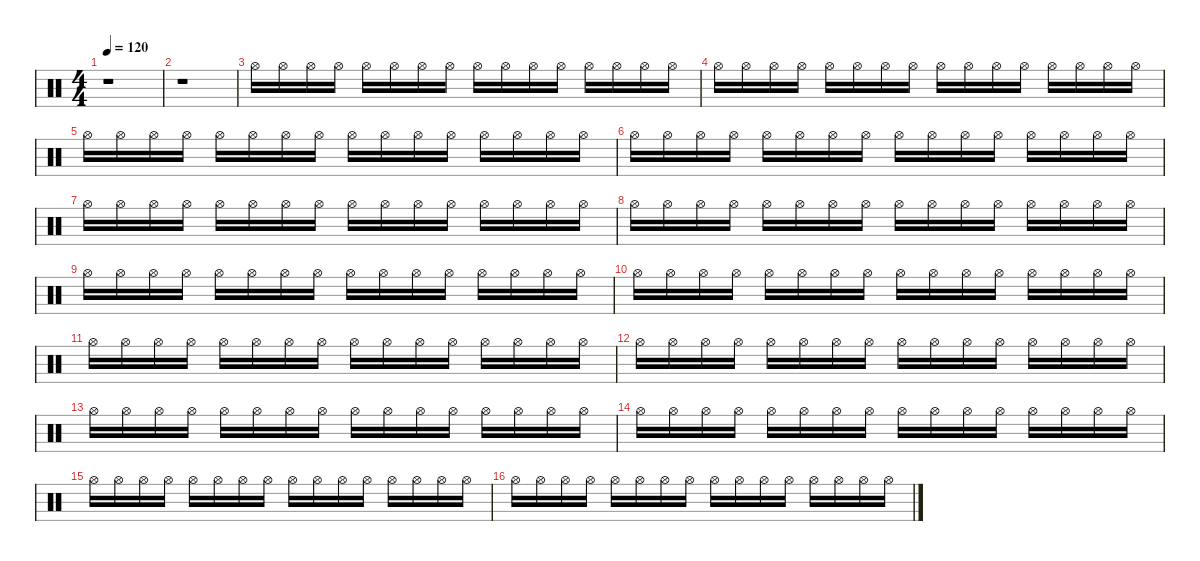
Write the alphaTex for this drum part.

\defaultSystemsLayout 4
\hideDynamics
\bracketExtendMode nobrackets
\singleTrackTrackNamePolicy hidden
\multiTrackTrackNamePolicy hidden
\firstSystemTrackNameMode fullname
\firstSystemTrackNameOrientation horizontal
\otherSystemsTrackNameOrientation horizontal
\track ("Percussion" "drm.") {instrument percussion}
\staff {score}
\articulation defaults
\ts (4 4)
\tempo 120
\clef neutral
\ks c
r.1{dy f beam Down} |
r.1{beam Down} |
"Hi-Hat (open)".16{beam Down} "Hi-Hat (open)".16{beam Down} "Hi-Hat (open)".16{beam Down} "Hi-Hat (open)".16{beam Down} "Hi-Hat (open)".16{beam Down} "Hi-Hat (open)".16{beam Down} "Hi-Hat (open)".16{beam Down} "Hi-Hat (open)".16{beam Down} "Hi-Hat (open)".16{beam Down} "Hi-Hat (open)".16{beam Down} "Hi-Hat (open)".16{beam Down} "Hi-Hat (open)".16{beam Down} "Hi-Hat (open)".16{beam Down} "Hi-Hat (open)".16{beam Down} "Hi-Hat (open)".16{beam Down} "Hi-Hat (open)".16{beam Down} |
"Hi-Hat (open)".16{beam Down} "Hi-Hat (open)".16{beam Down} "Hi-Hat (open)".16{beam Down} "Hi-Hat (open)".16{beam Down} "Hi-Hat (open)".16{beam Down} "Hi-Hat (open)".16{beam Down} "Hi-Hat (open)".16{beam Down} "Hi-Hat (open)".16{beam Down} "Hi-Hat (open)".16{beam Down} "Hi-Hat (open)".16{beam Down} "Hi-Hat (open)".16{beam Down} "Hi-Hat (open)".16{beam Down} "Hi-Hat (open)".16{beam Down} "Hi-Hat (open)".16{beam Down} "Hi-Hat (open)".16{beam Down} "Hi-Hat (open)".16{beam Down} |
"Hi-Hat (open)".16{beam Down} "Hi-Hat (open)".16{beam Down} "Hi-Hat (open)".16{beam Down} "Hi-Hat (open)".16{beam Down} "Hi-Hat (open)".16{beam Down} "Hi-Hat (open)".16{beam Down} "Hi-Hat (open)".16{beam Down} "Hi-Hat (open)".16{beam Down} "Hi-Hat (open)".16{beam Down} "Hi-Hat (open)".16{beam Down} "Hi-Hat (open)".16{beam Down} "Hi-Hat (open)".16{beam Down} "Hi-Hat (open)".16{beam Down} "Hi-Hat (open)".16{beam Down} "Hi-Hat (open)".16{beam Down} "Hi-Hat (open)".16{beam Down} |
"Hi-Hat (open)".16{beam Down} "Hi-Hat (open)".16{beam Down} "Hi-Hat (open)".16{beam Down} "Hi-Hat (open)".16{beam Down} "Hi-Hat (open)".16{beam Down} "Hi-Hat (open)".16{beam Down} "Hi-Hat (open)".16{beam Down} "Hi-Hat (open)".16{beam Down} "Hi-Hat (open)".16{beam Down} "Hi-Hat (open)".16{beam Down} "Hi-Hat (open)".16{beam Down} "Hi-Hat (open)".16{beam Down} "Hi-Hat (open)".16{beam Down} "Hi-Hat (open)".16{beam Down} "Hi-Hat (open)".16{beam Down} "Hi-Hat (open)".16{beam Down} |
"Hi-Hat (open)".16{beam Down} "Hi-Hat (open)".16{beam Down} "Hi-Hat (open)".16{beam Down} "Hi-Hat (open)".16{beam Down} "Hi-Hat (open)".16{beam Down} "Hi-Hat (open)".16{beam Down} "Hi-Hat (open)".16{beam Down} "Hi-Hat (open)".16{beam Down} "Hi-Hat (open)".16{beam Down} "Hi-Hat (open)".16{beam Down} "Hi-Hat (open)".16{beam Down} "Hi-Hat (open)".16{beam Down} "Hi-Hat (open)".16{beam Down} "Hi-Hat (open)".16{beam Down} "Hi-Hat (open)".16{beam Down} "Hi-Hat (open)".16{beam Down} |
"Hi-Hat (open)".16{beam Down} "Hi-Hat (open)".16{beam Down} "Hi-Hat (open)".16{beam Down} "Hi-Hat (open)".16{beam Down} "Hi-Hat (open)".16{beam Down} "Hi-Hat (open)".16{beam Down} "Hi-Hat (open)".16{beam Down} "Hi-Hat (open)".16{beam Down} "Hi-Hat (open)".16{beam Down} "Hi-Hat (open)".16{beam Down} "Hi-Hat (open)".16{beam Down} "Hi-Hat (open)".16{beam Down} "Hi-Hat (open)".16{beam Down} "Hi-Hat (open)".16{beam Down} "Hi-Hat (open)".16{beam Down} "Hi-Hat (open)".16{beam Down} |
"Hi-Hat (open)".16{beam Down} "Hi-Hat (open)".16{beam Down} "Hi-Hat (open)".16{beam Down} "Hi-Hat (open)".16{beam Down} "Hi-Hat (open)".16{beam Down} "Hi-Hat (open)".16{beam Down} "Hi-Hat (open)".16{beam Down} "Hi-Hat (open)".16{beam Down} "Hi-Hat (open)".16{beam Down} "Hi-Hat (open)".16{beam Down} "Hi-Hat (open)".16{beam Down} "Hi-Hat (open)".16{beam Down} "Hi-Hat (open)".16{beam Down} "Hi-Hat (open)".16{beam Down} "Hi-Hat (open)".16{beam Down} "Hi-Hat (open)".16{beam Down} |
"Hi-Hat (open)".16{beam Down} "Hi-Hat (open)".16{beam Down} "Hi-Hat (open)".16{beam Down} "Hi-Hat (open)".16{beam Down} "Hi-Hat (open)".16{beam Down} "Hi-Hat (open)".16{beam Down} "Hi-Hat (open)".16{beam Down} "Hi-Hat (open)".16{beam Down} "Hi-Hat (open)".16{beam Down} "Hi-Hat (open)".16{beam Down} "Hi-Hat (open)".16{beam Down} "Hi-Hat (open)".16{beam Down} "Hi-Hat (open)".16{beam Down} "Hi-Hat (open)".16{beam Down} "Hi-Hat (open)".16{beam Down} "Hi-Hat (open)".16{beam Down} |
"Hi-Hat (open)".16{beam Down} "Hi-Hat (open)".16{beam Down} "Hi-Hat (open)".16{beam Down} "Hi-Hat (open)".16{beam Down} "Hi-Hat (open)".16{beam Down} "Hi-Hat (open)".16{beam Down} "Hi-Hat (open)".16{beam Down} "Hi-Hat (open)".16{beam Down} "Hi-Hat (open)".16{beam Down} "Hi-Hat (open)".16{beam Down} "Hi-Hat (open)".16{beam Down} "Hi-Hat (open)".16{beam Down} "Hi-Hat (open)".16{beam Down} "Hi-Hat (open)".16{beam Down} "Hi-Hat (open)".16{beam Down} "Hi-Hat (open)".16{beam Down} |
"Hi-Hat (open)".16{beam Down} "Hi-Hat (open)".16{beam Down} "Hi-Hat (open)".16{beam Down} "Hi-Hat (open)".16{beam Down} "Hi-Hat (open)".16{beam Down} "Hi-Hat (open)".16{beam Down} "Hi-Hat (open)".16{beam Down} "Hi-Hat (open)".16{beam Down} "Hi-Hat (open)".16{beam Down} "Hi-Hat (open)".16{beam Down} "Hi-Hat (open)".16{beam Down} "Hi-Hat (open)".16{beam Down} "Hi-Hat (open)".16{beam Down} "Hi-Hat (open)".16{beam Down} "Hi-Hat (open)".16{beam Down} "Hi-Hat (open)".16{beam Down} |
"Hi-Hat (open)".16{beam Down} "Hi-Hat (open)".16{beam Down} "Hi-Hat (open)".16{beam Down} "Hi-Hat (open)".16{beam Down} "Hi-Hat (open)".16{beam Down} "Hi-Hat (open)".16{beam Down} "Hi-Hat (open)".16{beam Down} "Hi-Hat (open)".16{beam Down} "Hi-Hat (open)".16{beam Down} "Hi-Hat (open)".16{beam Down} "Hi-Hat (open)".16{beam Down} "Hi-Hat (open)".16{beam Down} "Hi-Hat (open)".16{beam Down} "Hi-Hat (open)".16{beam Down} "Hi-Hat (open)".16{beam Down} "Hi-Hat (open)".16{beam Down} |
"Hi-Hat (open)".16{beam Down} "Hi-Hat (open)".16{beam Down} "Hi-Hat (open)".16{beam Down} "Hi-Hat (open)".16{beam Down} "Hi-Hat (open)".16{beam Down} "Hi-Hat (open)".16{beam Down} "Hi-Hat (open)".16{beam Down} "Hi-Hat (open)".16{beam Down} "Hi-Hat (open)".16{beam Down} "Hi-Hat (open)".16{beam Down} "Hi-Hat (open)".16{beam Down} "Hi-Hat (open)".16{beam Down} "Hi-Hat (open)".16{beam Down} "Hi-Hat (open)".16{beam Down} "Hi-Hat (open)".16{beam Down} "Hi-Hat (open)".16{beam Down} |
"Hi-Hat (open)".16{beam Down} "Hi-Hat (open)".16{beam Down} "Hi-Hat (open)".16{beam Down} "Hi-Hat (open)".16{beam Down} "Hi-Hat (open)".16{beam Down} "Hi-Hat (open)".16{beam Down} "Hi-Hat (open)".16{beam Down} "Hi-Hat (open)".16{beam Down} "Hi-Hat (open)".16{beam Down} "Hi-Hat (open)".16{beam Down} "Hi-Hat (open)".16{beam Down} "Hi-Hat (open)".16{beam Down} "Hi-Hat (open)".16{beam Down} "Hi-Hat (open)".16{beam Down} "Hi-Hat (open)".16{beam Down} "Hi-Hat (open)".16{beam Down} |
"Hi-Hat (open)".16{beam Down} "Hi-Hat (open)".16{beam Down} "Hi-Hat (open)".16{beam Down} "Hi-Hat (open)".16{beam Down} "Hi-Hat (open)".16{beam Down} "Hi-Hat (open)".16{beam Down} "Hi-Hat (open)".16{beam Down} "Hi-Hat (open)".16{beam Down} "Hi-Hat (open)".16{beam Down} "Hi-Hat (open)".16{beam Down} "Hi-Hat (open)".16{beam Down} "Hi-Hat (open)".16{beam Down} "Hi-Hat (open)".16{beam Down} "Hi-Hat (open)".16{beam Down} "Hi-Hat (open)".16{beam Down} "Hi-Hat (open)".16{beam Down}
